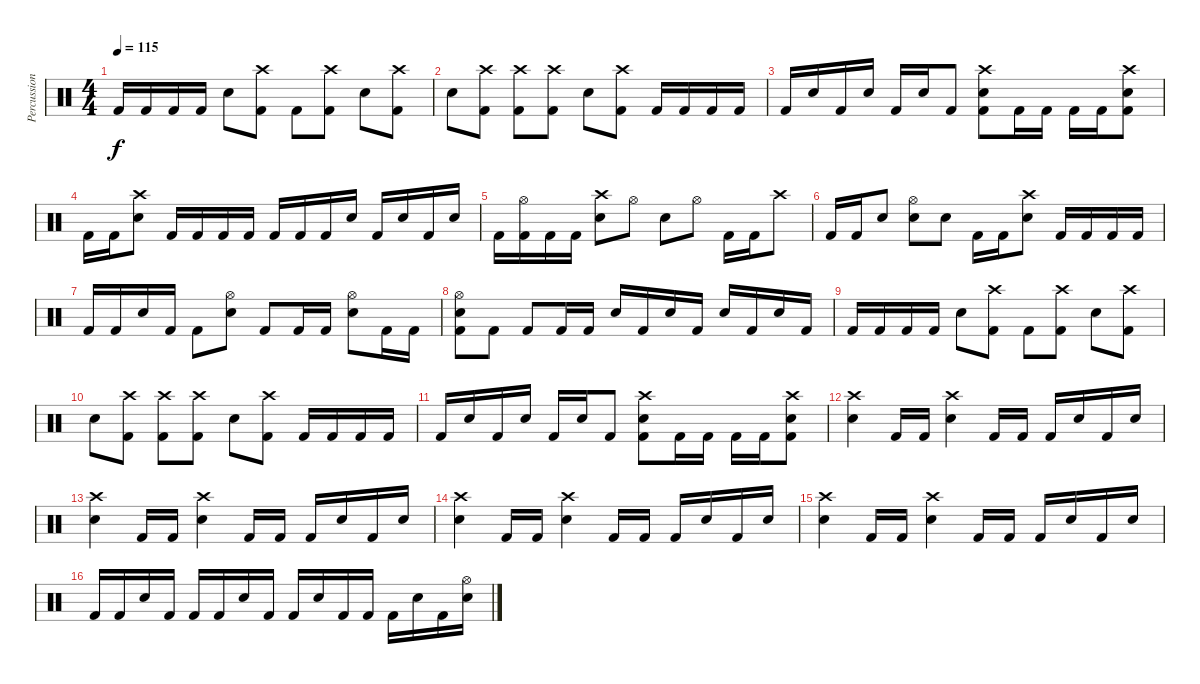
\track ("Percussioni" "Percussion") {instrument percussion}
\staff {score}
\articulation defaults
\ts (4 4)
\tempo 115
\clef neutral
\ks c "Kick (hit) 2".16{dy f} "Kick (hit) 2".16 "Kick (hit) 2".16 "Kick (hit) 2".16 "Electric Snare (hit)".8
("Crash high (hit)" "Kick (hit) 2").8 "Kick (hit) 2".8 ("Crash high (hit)" "Kick (hit) 2").8 "Electric Snare (hit)".8 ("Crash high (hit)" "Kick (hit) 2").8 |
"Electric Snare (hit)".8 ("Crash high (hit)" "Kick (hit) 2").8 ("Crash high (hit)" "Kick (hit) 2").8 ("Crash high (hit)" "Kick (hit) 2").8 "Electric Snare (hit)".8 ("Crash high (hit)" "Kick (hit) 2").8 "Kick (hit) 2".16 "Kick (hit) 2".16 "Kick (hit) 2".16 "Kick (hit) 2".16 |
"Kick (hit) 2".16 "Electric Snare (hit)".16 "Kick (hit) 2".16 "Electric Snare (hit)".16 "Kick (hit) 2".16 "Electric Snare (hit)".16 "Kick (hit) 2".8 ("Crash high (hit)" "Electric Snare (hit)" "Kick (hit) 2").8 "Kick (hit) 2".16 "Kick (hit) 2".16 "Kick (hit) 2".16 "Kick (hit) 2".16 ("Crash high (hit)" "Electric Snare (hit)" "Kick (hit) 2").8 |
"Kick (hit) 2".16 "Kick (hit) 2".16 ("Crash high (hit)" "Electric Snare (hit)").8 "Kick (hit) 2".16 "Kick (hit) 2".16 "Kick (hit) 2".16 "Kick (hit) 2".16 "Kick (hit) 2".16 "Kick (hit) 2".16 "Kick (hit) 2".16 "Electric Snare (hit)".16 "Kick (hit) 2".16 "Electric Snare (hit)".16 "Kick (hit) 2".16 "Electric Snare (hit)".16 |
"Kick (hit) 2".16 ("Hi-Hat (open)" "Kick (hit) 2").16 "Kick (hit) 2".16 "Kick (hit) 2".16 ("Crash high (hit)" "Electric Snare (hit)").8 "Hi-Hat (open)".8 "Electric Snare (hit)".8 "Hi-Hat (open)".8 "Kick (hit) 2".16 "Kick (hit) 2".16 "Crash high (hit)".8 |
"Kick (hit) 2".16 "Kick (hit) 2".16 "Electric Snare (hit)".8 ("Hi-Hat (open)" "Electric Snare (hit)").8 "Electric Snare (hit)".8 "Kick (hit) 2".16 "Kick (hit) 2".16 ("Crash high (hit)" "Electric Snare (hit)").8 "Kick (hit) 2".16 "Kick (hit) 2".16 "Kick (hit) 2".16 "Kick (hit) 2".16 |
"Kick (hit) 2".16 "Kick (hit) 2".16 "Electric Snare (hit)".16 "Kick (hit) 2".16 "Kick (hit) 2".8 ("Hi-Hat (open)" "Electric Snare (hit)").8 "Kick (hit) 2".8 "Kick (hit) 2".16 "Kick (hit) 2".16 ("Hi-Hat (open)" "Electric Snare (hit)").8 "Kick (hit) 2".16 "Kick (hit) 2".16 |
("Hi-Hat (open)" "Electric Snare (hit)" "Kick (hit) 2").8 "Kick (hit) 2".8 "Kick (hit) 2".8 "Kick (hit) 2".16 "Kick (hit) 2".16 "Electric Snare (hit)".16 "Kick (hit) 2".16 "Electric Snare (hit)".16 "Kick (hit) 2".16 "Electric Snare (hit)".16 "Kick (hit) 2".16 "Electric Snare (hit)".16 "Kick (hit) 2".16 |
"Kick (hit) 2".16 "Kick (hit) 2".16 "Kick (hit) 2".16 "Kick (hit) 2".16 "Electric Snare (hit)".8 ("Crash high (hit)" "Kick (hit) 2").8 "Kick (hit) 2".8 ("Crash high (hit)" "Kick (hit) 2").8 "Electric Snare (hit)".8 ("Crash high (hit)" "Kick (hit) 2").8 |
"Electric Snare (hit)".8 ("Crash high (hit)" "Kick (hit) 2").8 ("Crash high (hit)" "Kick (hit) 2").8 ("Crash high (hit)" "Kick (hit) 2").8 "Electric Snare (hit)".8 ("Crash high (hit)" "Kick (hit) 2").8 "Kick (hit) 2".16 "Kick (hit) 2".16 "Kick (hit) 2".16 "Kick (hit) 2".16 |
"Kick (hit) 2".16 "Electric Snare (hit)".16 "Kick (hit) 2".16 "Electric Snare (hit)".16 "Kick (hit) 2".16 "Electric Snare (hit)".16 "Kick (hit) 2".8 ("Crash high (hit)" "Electric Snare (hit)" "Kick (hit) 2").8 "Kick (hit) 2".16 "Kick (hit) 2".16 "Kick (hit) 2".16 "Kick (hit) 2".16 ("Crash high (hit)" "Electric Snare (hit)" "Kick (hit) 2").8 |
("Crash high (hit)" "Electric Snare (hit)").4 "Kick (hit) 2".16 "Kick (hit) 2".16 ("Crash high (hit)" "Electric Snare (hit)").4 "Kick (hit) 2".16 "Kick (hit) 2".16 "Kick (hit) 2".16 "Electric Snare (hit)".16 "Kick (hit) 2".16 "Electric Snare (hit)".16 |
("Crash high (hit)" "Electric Snare (hit)").4 "Kick (hit) 2".16 "Kick (hit) 2".16 ("Crash high (hit)" "Electric Snare (hit)").4 "Kick (hit) 2".16 "Kick (hit) 2".16 "Kick (hit) 2".16 "Electric Snare (hit)".16 "Kick (hit) 2".16 "Electric Snare (hit)".16 |
("Crash high (hit)" "Electric Snare (hit)").4 "Kick (hit) 2".16 "Kick (hit) 2".16 ("Crash high (hit)" "Electric Snare (hit)").4 "Kick (hit) 2".16 "Kick (hit) 2".16 "Kick (hit) 2".16 "Electric Snare (hit)".16 "Kick (hit) 2".16 "Electric Snare (hit)".16 |
("Crash high (hit)" "Electric Snare (hit)").4 "Kick (hit) 2".16 "Kick (hit) 2".16 ("Crash high (hit)" "Electric Snare (hit)").4 "Kick (hit) 2".16 "Kick (hit) 2".16 "Kick (hit) 2".16 "Electric Snare (hit)".16 "Kick (hit) 2".16 "Electric Snare (hit)".16 |
"Kick (hit) 2".16 "Kick (hit) 2".16 "Electric Snare (hit)".16 "Kick (hit) 2".16 "Kick (hit) 2".16 "Kick (hit) 2".16 "Electric Snare (hit)".16 "Kick (hit) 2".16 "Kick (hit) 2".16 "Electric Snare (hit)".16 "Kick (hit) 2".16 "Kick (hit) 2".16 "Kick (hit) 2".16 "Electric Snare (hit)".16 "Kick (hit) 2".16 ("Hi-Hat (open)" "Electric Snare (hit)").16
